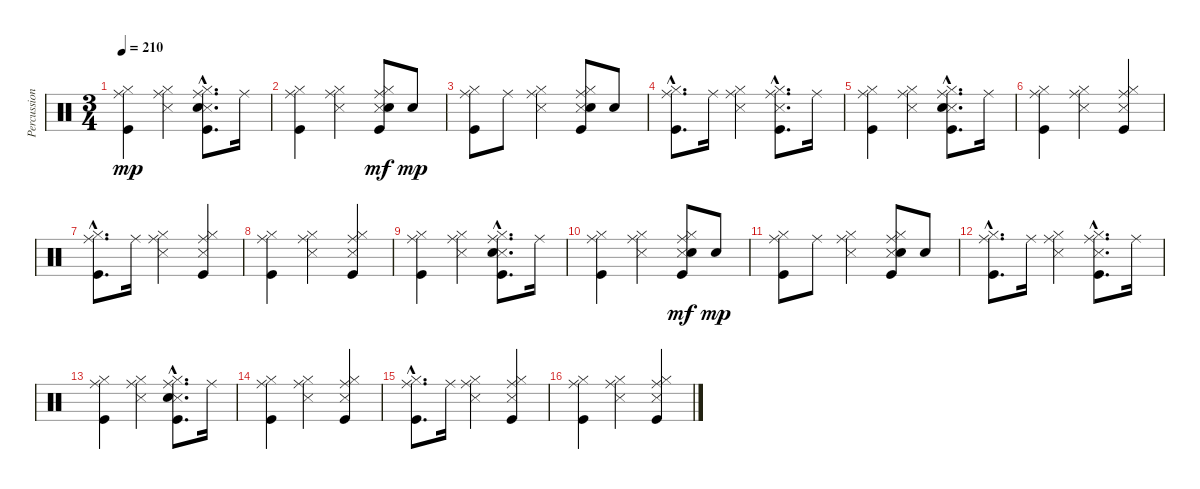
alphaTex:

\track ("Percussion" "Percussion") {instrument percussion}
\staff {score}
\articulation defaults
\ts (3 4)
\tempo 210
\clef neutral
\ks c
("Kick (hit)" "Hi-Hat (closed)" "Ride (middle)").4{dy mp} ("Snare (side stick) 3" "Hi-Hat (closed)" "Ride (middle)").4 ("Kick (hit)"{hac} "Snare (side stick) 3"{hac} "Snare (hit) 2"{hac} "Hi-Hat (closed)"{hac} "Ride (middle)"{hac}).8{d} "Ride (middle)".16 |
("Kick (hit)" "Hi-Hat (closed)" "Ride (middle)").4 ("Snare (side stick) 3" "Hi-Hat (closed)" "Ride (middle)").4 ("Kick (hit)" "Snare (side stick) 3" "Snare (hit) 2" "Hi-Hat (closed)" "Ride (middle)").8{dy mf} "Snare (hit) 2".8{dy mp} |
("Kick (hit)" "Hi-Hat (closed)" "Ride (middle)").8 "Ride (middle)".8 ("Snare (side stick) 3" "Hi-Hat (closed)" "Ride (middle)").4 ("Kick (hit)" "Snare (side stick) 3" "Snare (hit) 2" "Hi-Hat (closed)" "Ride (middle)").8 "Snare (hit) 2".8 |
("Kick (hit)"{hac} "Hi-Hat (closed)"{hac} "Ride (middle)"{hac}).8{d} "Ride (middle)".16 ("Snare (side stick) 3" "Hi-Hat (closed)" "Ride (middle)").4 ("Kick (hit)"{hac} "Snare (side stick) 3"{hac} "Hi-Hat (closed)"{hac} "Ride (middle)"{hac}).8{d} "Ride (middle)".16 |
("Kick (hit)" "Hi-Hat (closed)" "Ride (middle)").4 ("Snare (side stick) 3" "Hi-Hat (closed)" "Ride (middle)").4 ("Kick (hit)"{hac} "Snare (side stick) 3"{hac} "Snare (hit) 2"{hac} "Hi-Hat (closed)"{hac} "Ride (middle)"{hac}).8{d} "Ride (middle)".16 |
("Kick (hit)" "Hi-Hat (closed)" "Ride (middle)").4 ("Snare (side stick) 3" "Hi-Hat (closed)" "Ride (middle)").4 ("Kick (hit)" "Snare (side stick) 3" "Hi-Hat (closed)" "Ride (middle)").4 |
("Kick (hit)"{hac} "Hi-Hat (closed)"{hac} "Ride (middle)"{hac}).8{d} "Ride (middle)".16 ("Snare (side stick) 3" "Hi-Hat (closed)" "Ride (middle)").4 ("Kick (hit)" "Snare (side stick) 3" "Hi-Hat (closed)" "Ride (middle)").4 |
("Kick (hit)" "Hi-Hat (closed)" "Ride (middle)").4 ("Snare (side stick) 3" "Hi-Hat (closed)" "Ride (middle)").4 ("Kick (hit)" "Snare (side stick) 3" "Hi-Hat (closed)" "Ride (middle)").4 |
("Kick (hit)" "Hi-Hat (closed)" "Ride (middle)").4 ("Snare (side stick) 3" "Hi-Hat (closed)" "Ride (middle)").4 ("Kick (hit)"{hac} "Snare (side stick) 3"{hac} "Snare (hit) 2"{hac} "Hi-Hat (closed)"{hac} "Ride (middle)"{hac}).8{d} "Ride (middle)".16 |
("Kick (hit)" "Hi-Hat (closed)" "Ride (middle)").4 ("Snare (side stick) 3" "Hi-Hat (closed)" "Ride (middle)").4 ("Kick (hit)" "Snare (side stick) 3" "Snare (hit) 2" "Hi-Hat (closed)" "Ride (middle)").8{dy mf} "Snare (hit) 2".8{dy mp} |
("Kick (hit)" "Hi-Hat (closed)" "Ride (middle)").8 "Ride (middle)".8 ("Snare (side stick) 3" "Hi-Hat (closed)" "Ride (middle)").4 ("Kick (hit)" "Snare (side stick) 3" "Snare (hit) 2" "Hi-Hat (closed)" "Ride (middle)").8 "Snare (hit) 2".8 |
("Kick (hit)"{hac} "Hi-Hat (closed)"{hac} "Ride (middle)"{hac}).8{d} "Ride (middle)".16 ("Snare (side stick) 3" "Hi-Hat (closed)" "Ride (middle)").4 ("Kick (hit)"{hac} "Snare (side stick) 3"{hac} "Hi-Hat (closed)"{hac} "Ride (middle)"{hac}).8{d} "Ride (middle)".16 |
("Kick (hit)" "Hi-Hat (closed)" "Ride (middle)").4 ("Snare (side stick) 3" "Hi-Hat (closed)" "Ride (middle)").4 ("Kick (hit)"{hac} "Snare (side stick) 3"{hac} "Snare (hit) 2"{hac} "Hi-Hat (closed)"{hac} "Ride (middle)"{hac}).8{d} "Ride (middle)".16 |
("Kick (hit)" "Hi-Hat (closed)" "Ride (middle)").4 ("Snare (side stick) 3" "Hi-Hat (closed)" "Ride (middle)").4 ("Kick (hit)" "Snare (side stick) 3" "Hi-Hat (closed)" "Ride (middle)").4 |
("Kick (hit)"{hac} "Hi-Hat (closed)"{hac} "Ride (middle)"{hac}).8{d} "Ride (middle)".16 ("Snare (side stick) 3" "Hi-Hat (closed)" "Ride (middle)").4 ("Kick (hit)" "Snare (side stick) 3" "Hi-Hat (closed)" "Ride (middle)").4 |
("Kick (hit)" "Hi-Hat (closed)" "Ride (middle)").4 ("Snare (side stick) 3" "Hi-Hat (closed)" "Ride (middle)").4 ("Kick (hit)" "Snare (side stick) 3" "Hi-Hat (closed)" "Ride (middle)").4
